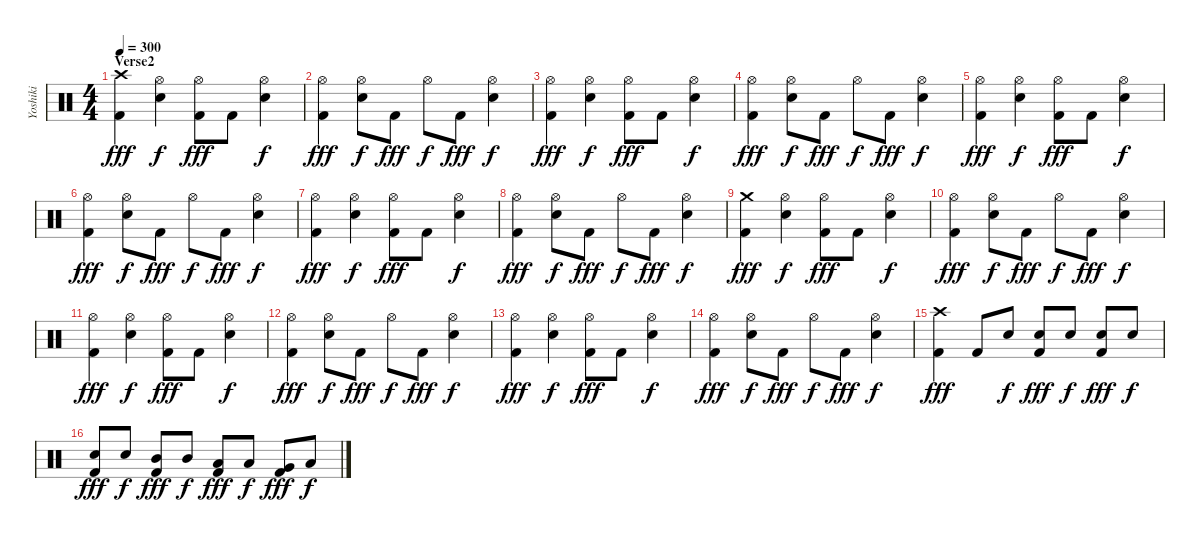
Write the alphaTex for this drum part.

\track ("Yoshiki" "Yoshiki") {instrument percussion}
\staff {score}
\articulation defaults
\ts (4 4)
\section ("" "Verse2")
\tempo 300
\clef neutral
\ks c
("Crash high (hit)" "Kick (hit) 2").4{dy fff} ("Hi-Hat (open)" "Snare (hit) 2").4{dy f} ("Hi-Hat (open)" "Kick (hit) 2").8{dy fff} "Kick (hit) 2".8 ("Hi-Hat (open)" "Snare (hit) 2").4{dy f} |
("Hi-Hat (open)" "Kick (hit) 2").4{dy fff} ("Hi-Hat (open)" "Snare (hit) 2").8{dy f} "Kick (hit) 2".8{dy fff} "Hi-Hat (open)".8{dy f} "Kick (hit) 2".8{dy fff} ("Hi-Hat (open)" "Snare (hit) 2").4{dy f} |
("Hi-Hat (open)" "Kick (hit) 2").4{dy fff} ("Hi-Hat (open)" "Snare (hit) 2").4{dy f} ("Hi-Hat (open)" "Kick (hit) 2").8{dy fff} "Kick (hit) 2".8 ("Hi-Hat (open)" "Snare (hit) 2").4{dy f} |
("Hi-Hat (open)" "Kick (hit) 2").4{dy fff} ("Hi-Hat (open)" "Snare (hit) 2").8{dy f} "Kick (hit) 2".8{dy fff} "Hi-Hat (open)".8{dy f} "Kick (hit) 2".8{dy fff} ("Hi-Hat (open)" "Snare (hit) 2").4{dy f} |
("Hi-Hat (open)" "Kick (hit) 2").4{dy fff} ("Hi-Hat (open)" "Snare (hit) 2").4{dy f} ("Hi-Hat (open)" "Kick (hit) 2").8{dy fff} "Kick (hit) 2".8 ("Hi-Hat (open)" "Snare (hit) 2").4{dy f} |
("Hi-Hat (open)" "Kick (hit) 2").4{dy fff} ("Hi-Hat (open)" "Snare (hit) 2").8{dy f} "Kick (hit) 2".8{dy fff} "Hi-Hat (open)".8{dy f} "Kick (hit) 2".8{dy fff} ("Hi-Hat (open)" "Snare (hit) 2").4{dy f} |
("Hi-Hat (open)" "Kick (hit) 2").4{dy fff} ("Hi-Hat (open)" "Snare (hit) 2").4{dy f} ("Hi-Hat (open)" "Kick (hit) 2").8{dy fff} "Kick (hit) 2".8 ("Hi-Hat (open)" "Snare (hit) 2").4{dy f} |
("Hi-Hat (open)" "Kick (hit) 2").4{dy fff} ("Hi-Hat (open)" "Snare (hit) 2").8{dy f} "Kick (hit) 2".8{dy fff} "Hi-Hat (open)".8{dy f} "Kick (hit) 2".8{dy fff} ("Hi-Hat (open)" "Snare (hit) 2").4{dy f} |
("Crash medium (hit)" "Kick (hit) 2").4{dy fff} ("Hi-Hat (open)" "Snare (hit) 2").4{dy f} ("Hi-Hat (open)" "Kick (hit) 2").8{dy fff} "Kick (hit) 2".8 ("Hi-Hat (open)" "Snare (hit) 2").4{dy f} |
("Hi-Hat (open)" "Kick (hit) 2").4{dy fff} ("Hi-Hat (open)" "Snare (hit) 2").8{dy f} "Kick (hit) 2".8{dy fff} "Hi-Hat (open)".8{dy f} "Kick (hit) 2".8{dy fff} ("Hi-Hat (open)" "Snare (hit) 2").4{dy f} |
("Hi-Hat (open)" "Kick (hit) 2").4{dy fff} ("Hi-Hat (open)" "Snare (hit) 2").4{dy f} ("Hi-Hat (open)" "Kick (hit) 2").8{dy fff} "Kick (hit) 2".8 ("Hi-Hat (open)" "Snare (hit) 2").4{dy f} |
("Hi-Hat (open)" "Kick (hit) 2").4{dy fff} ("Hi-Hat (open)" "Snare (hit) 2").8{dy f} "Kick (hit) 2".8{dy fff} "Hi-Hat (open)".8{dy f} "Kick (hit) 2".8{dy fff} ("Hi-Hat (open)" "Snare (hit) 2").4{dy f} |
("Hi-Hat (open)" "Kick (hit) 2").4{dy fff} ("Hi-Hat (open)" "Snare (hit) 2").4{dy f} ("Hi-Hat (open)" "Kick (hit) 2").8{dy fff} "Kick (hit) 2".8 ("Hi-Hat (open)" "Snare (hit) 2").4{dy f} |
("Hi-Hat (open)" "Kick (hit) 2").4{dy fff} ("Hi-Hat (open)" "Snare (hit) 2").8{dy f} "Kick (hit) 2".8{dy fff} "Hi-Hat (open)".8{dy f} "Kick (hit) 2".8{dy fff} ("Hi-Hat (open)" "Snare (hit) 2").4{dy f} |
("Crash high (hit)" "Kick (hit) 2").4{dy fff} "Kick (hit) 2".8 "Snare (hit) 2".8{dy f} ("Snare (hit) 2" "Kick (hit) 2").8{dy fff} "Snare (hit) 2".8{dy f} ("Snare (hit) 2" "Kick (hit) 2").8{dy fff} "Snare (hit) 2".8{dy f} |
("Snare (hit) 2" "Kick (hit) 2").8{dy fff} "Snare (hit) 2".8{dy f} ("Mid Tom (hit)" "Kick (hit) 2").8{dy fff} "Mid Tom (hit)".8{dy f} ("Low Tom (hit)" "Kick (hit) 2").8{dy fff} "Low Tom (hit)".8{dy f} ("Very Low Tom (hit)" "Kick (hit) 2").8{dy fff} "Low Floor Tom (hit)".8{dy f}
